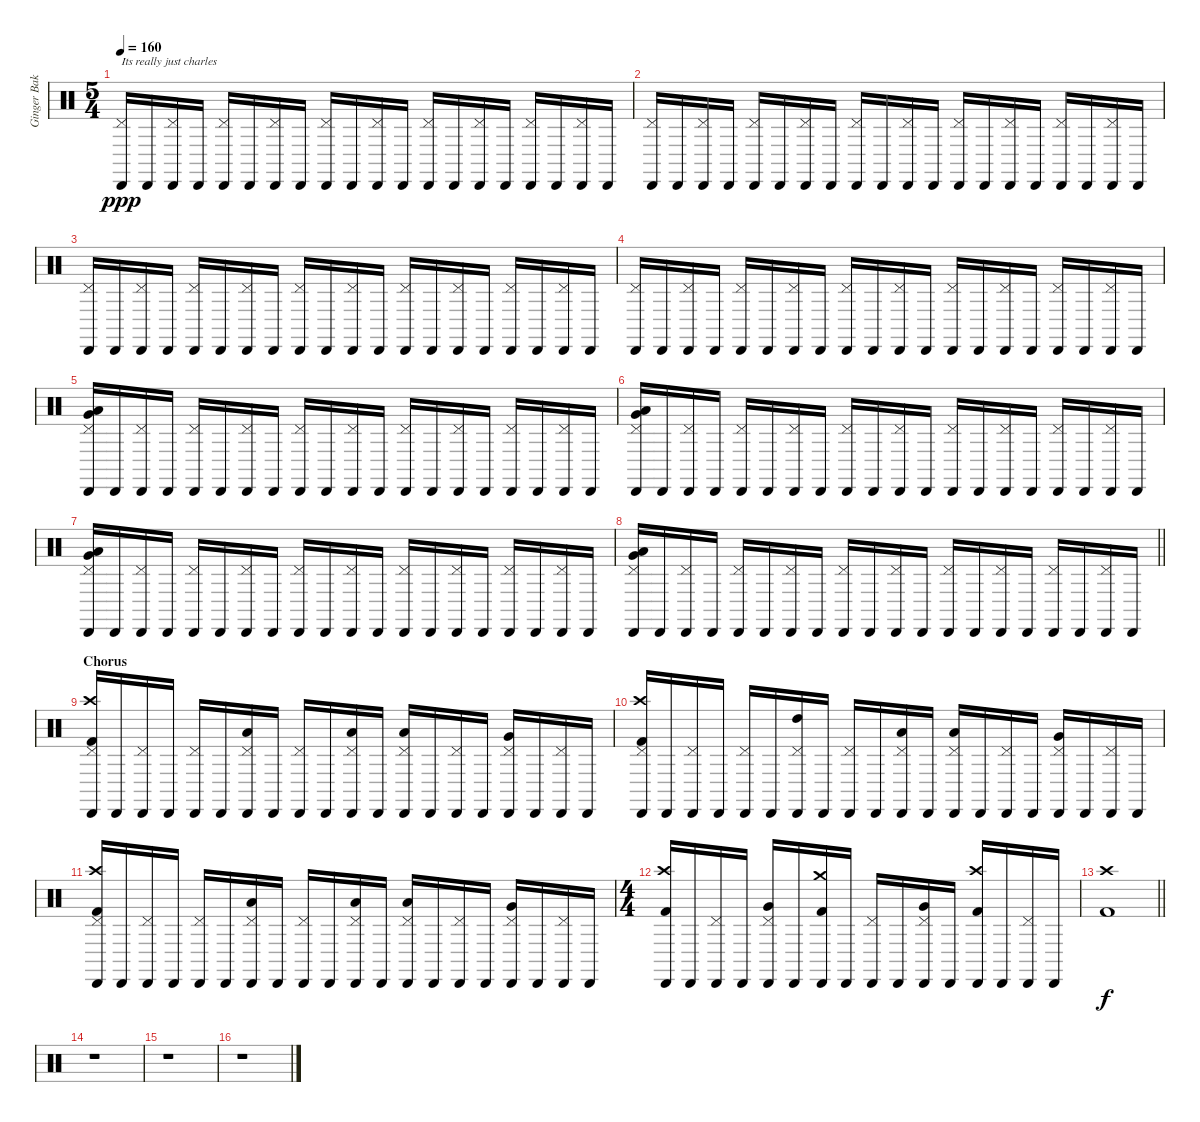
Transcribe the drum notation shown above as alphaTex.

\track ("Ginger Baker (Drums)" "Ginger Bak") {instrument percussion}
\staff {score}
\articulation defaults
\ts (5 4)
\tempo 160
\clef neutral
\ks c
("Pedal Hi-Hat (hit)" "Cabasa (hit)").16{txt "Its really just charles" dy ppp} "Cabasa (hit)".16 ("Pedal Hi-Hat (hit)" "Cabasa (hit)").16 "Cabasa (hit)".16 ("Pedal Hi-Hat (hit)" "Cabasa (hit)").16 "Cabasa (hit)".16 ("Pedal Hi-Hat (hit)" "Cabasa (hit)").16 "Cabasa (hit)".16 ("Pedal Hi-Hat (hit)" "Cabasa (hit)").16 "Cabasa (hit)".16 ("Pedal Hi-Hat (hit)" "Cabasa (hit)").16 "Cabasa (hit)".16 ("Pedal Hi-Hat (hit)" "Cabasa (hit)").16 "Cabasa (hit)".16 ("Pedal Hi-Hat (hit)" "Cabasa (hit)").16 "Cabasa (hit)".16 ("Pedal Hi-Hat (hit)" "Cabasa (hit)").16 "Cabasa (hit)".16 ("Pedal Hi-Hat (hit)" "Cabasa (hit)").16 "Cabasa (hit)".16 |
("Pedal Hi-Hat (hit)" "Cabasa (hit)").16 "Cabasa (hit)".16 ("Pedal Hi-Hat (hit)" "Cabasa (hit)").16 "Cabasa (hit)".16 ("Pedal Hi-Hat (hit)" "Cabasa (hit)").16 "Cabasa (hit)".16 ("Pedal Hi-Hat (hit)" "Cabasa (hit)").16 "Cabasa (hit)".16 ("Pedal Hi-Hat (hit)" "Cabasa (hit)").16 "Cabasa (hit)".16 ("Pedal Hi-Hat (hit)" "Cabasa (hit)").16 "Cabasa (hit)".16 ("Pedal Hi-Hat (hit)" "Cabasa (hit)").16 "Cabasa (hit)".16 ("Pedal Hi-Hat (hit)" "Cabasa (hit)").16 "Cabasa (hit)".16 ("Pedal Hi-Hat (hit)" "Cabasa (hit)").16 "Cabasa (hit)".16 ("Pedal Hi-Hat (hit)" "Cabasa (hit)").16 "Cabasa (hit)".16 |
("Pedal Hi-Hat (hit)" "Cabasa (hit)").16 "Cabasa (hit)".16 ("Pedal Hi-Hat (hit)" "Cabasa (hit)").16 "Cabasa (hit)".16 ("Pedal Hi-Hat (hit)" "Cabasa (hit)").16 "Cabasa (hit)".16 ("Pedal Hi-Hat (hit)" "Cabasa (hit)").16 "Cabasa (hit)".16 ("Pedal Hi-Hat (hit)" "Cabasa (hit)").16 "Cabasa (hit)".16 ("Pedal Hi-Hat (hit)" "Cabasa (hit)").16 "Cabasa (hit)".16 ("Pedal Hi-Hat (hit)" "Cabasa (hit)").16 "Cabasa (hit)".16 ("Pedal Hi-Hat (hit)" "Cabasa (hit)").16 "Cabasa (hit)".16 ("Pedal Hi-Hat (hit)" "Cabasa (hit)").16 "Cabasa (hit)".16 ("Pedal Hi-Hat (hit)" "Cabasa (hit)").16 "Cabasa (hit)".16 |
("Pedal Hi-Hat (hit)" "Cabasa (hit)").16 "Cabasa (hit)".16 ("Pedal Hi-Hat (hit)" "Cabasa (hit)").16 "Cabasa (hit)".16 ("Pedal Hi-Hat (hit)" "Cabasa (hit)").16 "Cabasa (hit)".16 ("Pedal Hi-Hat (hit)" "Cabasa (hit)").16 "Cabasa (hit)".16 ("Pedal Hi-Hat (hit)" "Cabasa (hit)").16 "Cabasa (hit)".16 ("Pedal Hi-Hat (hit)" "Cabasa (hit)").16 "Cabasa (hit)".16 ("Pedal Hi-Hat (hit)" "Cabasa (hit)").16 "Cabasa (hit)".16 ("Pedal Hi-Hat (hit)" "Cabasa (hit)").16 "Cabasa (hit)".16 ("Pedal Hi-Hat (hit)" "Cabasa (hit)").16 "Cabasa (hit)".16 ("Pedal Hi-Hat (hit)" "Cabasa (hit)").16 "Cabasa (hit)".16 |
("Pedal Hi-Hat (hit)" "Cabasa (hit)" "Very Low Tom (hit)" "Low Tom (hit)").16 "Cabasa (hit)".16 ("Pedal Hi-Hat (hit)" "Cabasa (hit)").16 "Cabasa (hit)".16 ("Pedal Hi-Hat (hit)" "Cabasa (hit)").16 "Cabasa (hit)".16 ("Pedal Hi-Hat (hit)" "Cabasa (hit)").16 "Cabasa (hit)".16 ("Pedal Hi-Hat (hit)" "Cabasa (hit)").16 "Cabasa (hit)".16 ("Pedal Hi-Hat (hit)" "Cabasa (hit)").16 "Cabasa (hit)".16 ("Pedal Hi-Hat (hit)" "Cabasa (hit)").16 "Cabasa (hit)".16 ("Pedal Hi-Hat (hit)" "Cabasa (hit)").16 "Cabasa (hit)".16 ("Pedal Hi-Hat (hit)" "Cabasa (hit)").16 "Cabasa (hit)".16 ("Pedal Hi-Hat (hit)" "Cabasa (hit)").16 "Cabasa (hit)".16 |
("Pedal Hi-Hat (hit)" "Cabasa (hit)" "Very Low Tom (hit)" "Low Tom (hit)").16 "Cabasa (hit)".16 ("Pedal Hi-Hat (hit)" "Cabasa (hit)").16 "Cabasa (hit)".16 ("Pedal Hi-Hat (hit)" "Cabasa (hit)").16 "Cabasa (hit)".16 ("Pedal Hi-Hat (hit)" "Cabasa (hit)").16 "Cabasa (hit)".16 ("Pedal Hi-Hat (hit)" "Cabasa (hit)").16 "Cabasa (hit)".16 ("Pedal Hi-Hat (hit)" "Cabasa (hit)").16 "Cabasa (hit)".16 ("Pedal Hi-Hat (hit)" "Cabasa (hit)").16 "Cabasa (hit)".16 ("Pedal Hi-Hat (hit)" "Cabasa (hit)").16 "Cabasa (hit)".16 ("Pedal Hi-Hat (hit)" "Cabasa (hit)").16 "Cabasa (hit)".16 ("Pedal Hi-Hat (hit)" "Cabasa (hit)").16 "Cabasa (hit)".16 |
("Pedal Hi-Hat (hit)" "Cabasa (hit)" "Very Low Tom (hit)" "Low Tom (hit)").16 "Cabasa (hit)".16 ("Pedal Hi-Hat (hit)" "Cabasa (hit)").16 "Cabasa (hit)".16 ("Pedal Hi-Hat (hit)" "Cabasa (hit)").16 "Cabasa (hit)".16 ("Pedal Hi-Hat (hit)" "Cabasa (hit)").16 "Cabasa (hit)".16 ("Pedal Hi-Hat (hit)" "Cabasa (hit)").16 "Cabasa (hit)".16 ("Pedal Hi-Hat (hit)" "Cabasa (hit)").16 "Cabasa (hit)".16 ("Pedal Hi-Hat (hit)" "Cabasa (hit)").16 "Cabasa (hit)".16 ("Pedal Hi-Hat (hit)" "Cabasa (hit)").16 "Cabasa (hit)".16 ("Pedal Hi-Hat (hit)" "Cabasa (hit)").16 "Cabasa (hit)".16 ("Pedal Hi-Hat (hit)" "Cabasa (hit)").16 "Cabasa (hit)".16 |
\barLineRight lightlight
("Pedal Hi-Hat (hit)" "Cabasa (hit)" "Very Low Tom (hit)" "Low Tom (hit)").16 "Cabasa (hit)".16 ("Pedal Hi-Hat (hit)" "Cabasa (hit)").16 "Cabasa (hit)".16 ("Pedal Hi-Hat (hit)" "Cabasa (hit)").16 "Cabasa (hit)".16 ("Pedal Hi-Hat (hit)" "Cabasa (hit)").16 "Cabasa (hit)".16 ("Pedal Hi-Hat (hit)" "Cabasa (hit)").16 "Cabasa (hit)".16 ("Pedal Hi-Hat (hit)" "Cabasa (hit)").16 "Cabasa (hit)".16 ("Pedal Hi-Hat (hit)" "Cabasa (hit)").16 "Cabasa (hit)".16 ("Pedal Hi-Hat (hit)" "Cabasa (hit)").16 "Cabasa (hit)".16 ("Pedal Hi-Hat (hit)" "Cabasa (hit)").16 "Cabasa (hit)".16 ("Pedal Hi-Hat (hit)" "Cabasa (hit)").16 "Cabasa (hit)".16 |
\section ("" "Chorus")
("Pedal Hi-Hat (hit)" "Cabasa (hit)" "Crash high (hit)" "Kick (hit) 2").16 "Cabasa (hit)".16 ("Pedal Hi-Hat (hit)" "Cabasa (hit)").16 "Cabasa (hit)".16 ("Pedal Hi-Hat (hit)" "Cabasa (hit)").16 "Cabasa (hit)".16 ("Pedal Hi-Hat (hit)" "Cabasa (hit)" "Low Tom (hit)").16 "Cabasa (hit)".16 ("Pedal Hi-Hat (hit)" "Cabasa (hit)").16 "Cabasa (hit)".16 ("Pedal Hi-Hat (hit)" "Cabasa (hit)" "Low Floor Tom (hit)").16 "Cabasa (hit)".16 ("Pedal Hi-Hat (hit)" "Cabasa (hit)" "Low Tom (hit)").16 "Cabasa (hit)".16 ("Pedal Hi-Hat (hit)" "Cabasa (hit)").16 "Cabasa (hit)".16 ("Pedal Hi-Hat (hit)" "Cabasa (hit)" "Very Low Tom (hit)").16 "Cabasa (hit)".16 ("Pedal Hi-Hat (hit)" "Cabasa (hit)").16 "Cabasa (hit)".16 |
("Pedal Hi-Hat (hit)" "Cabasa (hit)" "Crash high (hit)" "Kick (hit) 2").16 "Cabasa (hit)".16 ("Pedal Hi-Hat (hit)" "Cabasa (hit)").16 "Cabasa (hit)".16 ("Pedal Hi-Hat (hit)" "Cabasa (hit)").16 "Cabasa (hit)".16 ("Pedal Hi-Hat (hit)" "Cabasa (hit)" "High Tom (hit)").16 "Cabasa (hit)".16 ("Pedal Hi-Hat (hit)" "Cabasa (hit)").16 "Cabasa (hit)".16 ("Pedal Hi-Hat (hit)" "Cabasa (hit)" "Low Floor Tom (hit)").16 "Cabasa (hit)".16 ("Pedal Hi-Hat (hit)" "Cabasa (hit)" "Low Floor Tom (hit)").16 "Cabasa (hit)".16 ("Pedal Hi-Hat (hit)" "Cabasa (hit)").16 "Cabasa (hit)".16 ("Pedal Hi-Hat (hit)" "Cabasa (hit)" "Very Low Tom (hit)").16 "Cabasa (hit)".16 ("Pedal Hi-Hat (hit)" "Cabasa (hit)").16 "Cabasa (hit)".16 |
("Pedal Hi-Hat (hit)" "Cabasa (hit)" "Crash high (hit)" "Kick (hit) 2").16 "Cabasa (hit)".16 ("Pedal Hi-Hat (hit)" "Cabasa (hit)").16 "Cabasa (hit)".16 ("Pedal Hi-Hat (hit)" "Cabasa (hit)").16 "Cabasa (hit)".16 ("Pedal Hi-Hat (hit)" "Cabasa (hit)" "Low Tom (hit)").16 "Cabasa (hit)".16 ("Pedal Hi-Hat (hit)" "Cabasa (hit)").16 "Cabasa (hit)".16 ("Pedal Hi-Hat (hit)" "Cabasa (hit)" "Low Floor Tom (hit)").16 "Cabasa (hit)".16 ("Pedal Hi-Hat (hit)" "Cabasa (hit)" "Low Tom (hit)").16 "Cabasa (hit)".16 ("Pedal Hi-Hat (hit)" "Cabasa (hit)").16 "Cabasa (hit)".16 ("Pedal Hi-Hat (hit)" "Cabasa (hit)" "Very Low Tom (hit)").16 "Cabasa (hit)".16 ("Pedal Hi-Hat (hit)" "Cabasa (hit)").16 "Cabasa (hit)".16 |
\ts (4 4)
("Crash high (hit)" "Cabasa (hit)" "Kick (hit) 2").16 "Cabasa (hit)".16 ("Pedal Hi-Hat (hit)" "Cabasa (hit)").16 "Cabasa (hit)".16 ("Pedal Hi-Hat (hit)" "Cabasa (hit)" "Very Low Tom (hit)").16 "Cabasa (hit)".16 ("Crash medium (hit)" "Cabasa (hit)" "Kick (hit) 2").16 "Cabasa (hit)".16 ("Pedal Hi-Hat (hit)" "Cabasa (hit)").16 "Cabasa (hit)".16 ("Pedal Hi-Hat (hit)" "Cabasa (hit)" "Very Low Tom (hit)").16 "Cabasa (hit)".16 ("Crash high (hit)" "Cabasa (hit)" "Kick (hit) 2").16 "Cabasa (hit)".16 ("Pedal Hi-Hat (hit)" "Cabasa (hit)").16 "Cabasa (hit)".16 |
\barLineRight lightlight
("Crash high (hit)" "Kick (hit) 2").1{dy f} |
r.1 |
r.1 |
r.1
